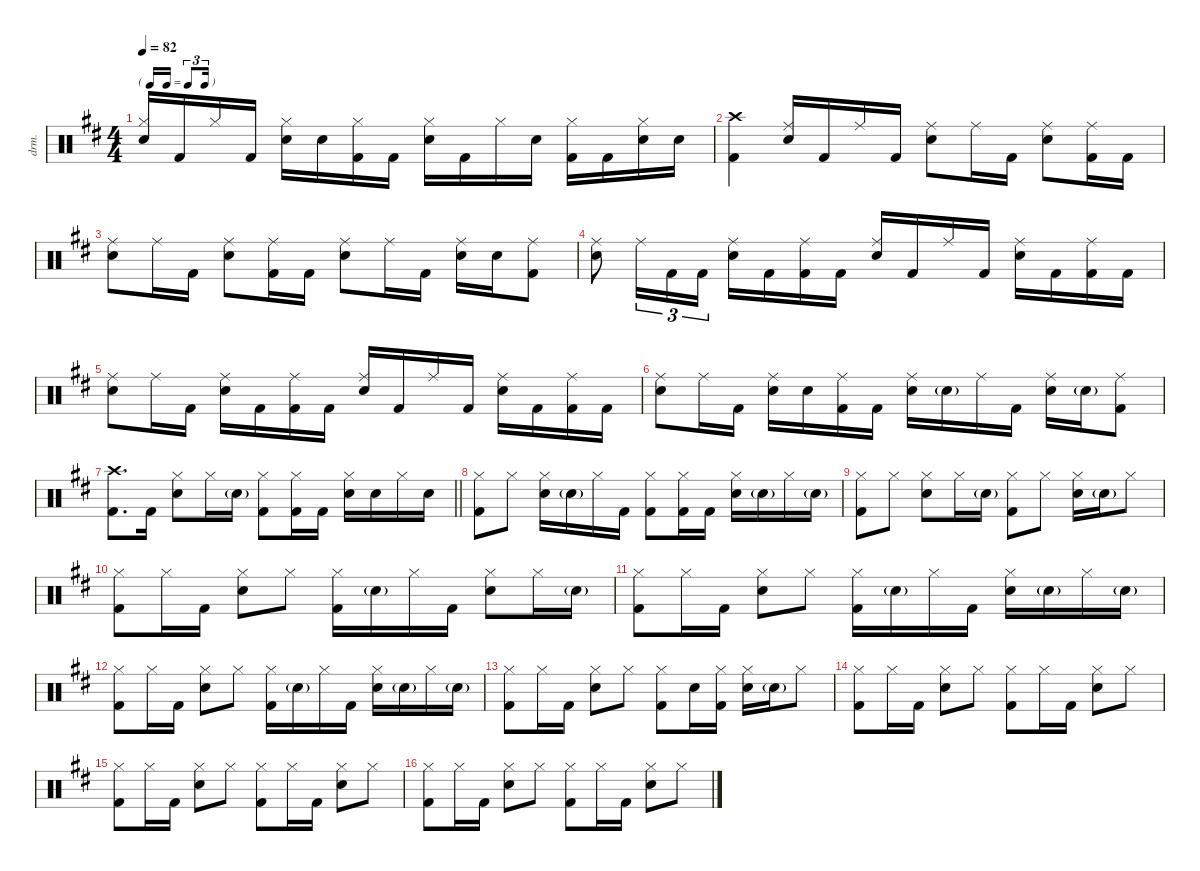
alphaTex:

\defaultSystemsLayout 4
\hideDynamics
\bracketExtendMode nobrackets
\otherSystemsTrackNameOrientation horizontal
\track ("Buddy" "drm.") {instrument percussion}
\staff {score}
\articulation defaults
\ts (4 4)
\tf triplet16th
\tempo 82
\clef neutral
\ks d
("Hi-Hat (closed)"{acc forcenatural} "Snare (hit) 2"{acc forcenatural}).16{dy f beam Up} "Kick (hit) 2"{acc forcenatural}.16{beam Up} "Hi-Hat (closed)"{acc forcenatural}.16{beam Up} "Kick (hit) 2"{acc forcenatural}.16{beam Up} ("Hi-Hat (closed)"{acc forcenatural} "Snare (hit) 2"{acc forcenatural}).16{beam Down} "Snare (hit) 2"{acc forcenatural}.16{beam Down} ("Hi-Hat (closed)"{acc forcenatural} "Kick (hit) 2"{acc forcenatural}).16{beam Down} "Kick (hit) 2"{acc forcenatural}.16{beam Down} ("Hi-Hat (closed)"{acc forcenatural} "Snare (hit) 2"{acc forcenatural}).16{beam Down} "Kick (hit) 2"{acc forcenatural}.16{beam Down} "Hi-Hat (closed)"{acc forcenatural}.16{beam Down} "Snare (hit) 2"{acc forcenatural}.16{beam Down} ("Hi-Hat (closed)"{acc forcenatural} "Kick (hit) 2"{acc forcenatural}).16{beam Down} "Kick (hit) 2"{acc forcenatural}.16{beam Down} ("Hi-Hat (closed)"{acc forcenatural} "Snare (hit) 2"{acc forcenatural}).16{beam Down} "Snare (hit) 2"{acc forcenatural}.16{beam Down} |
("Crash high (hit)"{acc forcenatural} "Kick (hit) 2"{acc forcenatural}).4{beam Down} ("Ride (middle)"{acc forcenatural} "Snare (hit) 2"{acc forcenatural}).16{beam Up} "Kick (hit) 2"{acc forcenatural}.16{beam Up} "Ride (middle)"{acc forcenatural}.16{beam Up} "Kick (hit) 2"{acc forcenatural}.16{beam Up} ("Ride (middle)"{acc forcenatural} "Snare (hit) 2"{acc forcenatural}).8{beam Down} "Ride (middle)"{acc forcenatural}.16{beam Down} "Kick (hit) 2"{acc forcenatural}.16{beam Down} ("Ride (middle)"{acc forcenatural} "Snare (hit) 2"{acc forcenatural}).8{beam Down} ("Ride (middle)"{acc forcenatural} "Kick (hit) 2"{acc forcenatural}).16{beam Down} "Kick (hit) 2"{acc forcenatural}.16{beam Down} |
("Ride (middle)"{acc forcenatural} "Snare (hit) 2"{acc forcenatural}).8{beam Down} "Ride (middle)"{acc forcenatural}.16{beam Down} "Kick (hit) 2"{acc forcenatural}.16{beam Down} ("Ride (middle)"{acc forcenatural} "Snare (hit) 2"{acc forcenatural}).8{beam Down} ("Ride (middle)"{acc forcenatural} "Kick (hit) 2"{acc forcenatural}).16{beam Down} "Kick (hit) 2"{acc forcenatural}.16{beam Down} ("Ride (middle)"{acc forcenatural} "Snare (hit) 2"{acc forcenatural}).8{beam Down} "Ride (middle)"{acc forcenatural}.16{beam Down} "Kick (hit) 2"{acc forcenatural}.16{beam Down} ("Ride (middle)"{acc forcenatural} "Snare (hit) 2"{acc forcenatural}).16{beam Down} "Snare (hit) 2"{acc forcenatural}.16{beam Down} ("Ride (middle)"{acc forcenatural} "Kick (hit) 2"{acc forcenatural}).8{beam Down} |
("Ride (middle)"{acc forcenatural} "Snare (hit) 2"{acc forcenatural}).8{beam Down} "Ride (middle)"{acc forcenatural}.16{tu (3 2) beam Down} "Kick (hit) 2"{acc forcenatural}.16{tu (3 2) beam Down} "Kick (hit) 2"{acc forcenatural}.16{tu (3 2) beam Down} ("Ride (middle)"{acc forcenatural} "Snare (hit) 2"{acc forcenatural}).16{beam Down} "Kick (hit) 2"{acc forcenatural}.16{beam Down} ("Ride (middle)"{acc forcenatural} "Kick (hit) 2"{acc forcenatural}).16{beam Down} "Kick (hit) 2"{acc forcenatural}.16{beam Down} ("Ride (middle)"{acc forcenatural} "Snare (hit) 2"{acc forcenatural}).16{beam Up} "Kick (hit) 2"{acc forcenatural}.16{beam Up} "Ride (middle)"{acc forcenatural}.16{beam Up} "Kick (hit) 2"{acc forcenatural}.16{beam Up} ("Ride (middle)"{acc forcenatural} "Snare (hit) 2"{acc forcenatural}).16{beam Down} "Kick (hit) 2"{acc forcenatural}.16{beam Down} ("Ride (middle)"{acc forcenatural} "Kick (hit) 2"{acc forcenatural}).16{beam Down} "Kick (hit) 2"{acc forcenatural}.16{beam Down} |
("Ride (middle)"{acc forcenatural} "Snare (hit) 2"{acc forcenatural}).8{beam Down} "Ride (middle)"{acc forcenatural}.16{beam Down} "Kick (hit) 2"{acc forcenatural}.16{beam Down} ("Ride (middle)"{acc forcenatural} "Snare (hit) 2"{acc forcenatural}).16{beam Down} "Kick (hit) 2"{acc forcenatural}.16{beam Down} ("Ride (middle)"{acc forcenatural} "Kick (hit) 2"{acc forcenatural}).16{beam Down} "Kick (hit) 2"{acc forcenatural}.16{beam Down} ("Ride (middle)"{acc forcenatural} "Snare (hit) 2"{acc forcenatural}).16{beam Up} "Kick (hit) 2"{acc forcenatural}.16{beam Up} "Ride (middle)"{acc forcenatural}.16{beam Up} "Kick (hit) 2"{acc forcenatural}.16{beam Up} ("Ride (middle)"{acc forcenatural} "Snare (hit) 2"{acc forcenatural}).16{beam Down} "Kick (hit) 2"{acc forcenatural}.16{beam Down} ("Ride (middle)"{acc forcenatural} "Kick (hit) 2"{acc forcenatural}).16{beam Down} "Kick (hit) 2"{acc forcenatural}.16{beam Down} |
("Ride (middle)"{acc forcenatural} "Snare (hit) 2"{acc forcenatural}).8{beam Down} "Ride (middle)"{acc forcenatural}.16{beam Down} "Kick (hit) 2"{acc forcenatural}.16{beam Down} ("Ride (middle)"{acc forcenatural} "Snare (hit) 2"{acc forcenatural}).16{beam Down} "Snare (hit) 2"{acc forcenatural}.16{beam Down} ("Ride (middle)"{acc forcenatural} "Kick (hit) 2"{acc forcenatural}).16{beam Down} "Kick (hit) 2"{acc forcenatural}.16{beam Down} ("Ride (middle)"{acc forcenatural} "Snare (hit) 2"{acc forcenatural}).16{beam Down} "Snare (hit) 2"{g acc forcenatural}.16{dy mf beam Down} "Ride (middle)"{acc forcenatural}.16{dy f beam Down} "Kick (hit) 2"{acc forcenatural}.16{beam Down} ("Ride (middle)"{acc forcenatural} "Snare (hit) 2"{acc forcenatural}).16{beam Down} "Snare (hit) 2"{g acc forcenatural}.16{dy mf beam Down} ("Ride (middle)"{acc forcenatural} "Kick (hit) 2"{acc forcenatural}).8{dy f beam Down} |
\barLineRight lightlight
("Crash high (hit)"{acc forcenatural} "Kick (hit) 2"{acc forcenatural}).8{d beam Down} "Kick (hit) 2"{acc forcenatural}.16{beam Down} ("Hi-Hat (closed)"{acc forcenatural} "Snare (hit) 2"{acc forcenatural}).8{beam Down} "Hi-Hat (closed)"{acc forcenatural}.16{beam Down} "Snare (hit) 2"{g acc forcenatural}.16{dy mf beam Down} ("Hi-Hat (closed)"{acc forcenatural} "Kick (hit) 2"{acc forcenatural}).8{dy f beam Down} ("Hi-Hat (closed)"{acc forcenatural} "Kick (hit) 2"{acc forcenatural}).16{beam Down} "Kick (hit) 2"{acc forcenatural}.16{beam Down} ("Hi-Hat (closed)"{acc forcenatural} "Snare (hit) 2"{acc forcenatural}).16{beam Down} "Snare (hit) 2"{acc forcenatural}.16{beam Down} "Hi-Hat (closed)"{acc forcenatural}.16{beam Down} "Snare (hit) 2"{acc forcenatural}.16{beam Down} |
("Hi-Hat (closed)"{acc forcenatural} "Kick (hit) 2"{acc forcenatural}).8{beam Down} "Hi-Hat (closed)"{acc forcenatural}.8{beam Down} ("Hi-Hat (closed)"{acc forcenatural} "Snare (hit) 2"{acc forcenatural}).16{beam Down} "Snare (hit) 2"{g acc forcenatural}.16{dy mf beam Down} "Hi-Hat (closed)"{acc forcenatural}.16{dy f beam Down} "Kick (hit) 2"{acc forcenatural}.16{beam Down} ("Hi-Hat (closed)"{acc forcenatural} "Kick (hit) 2"{acc forcenatural}).8{beam Down} ("Hi-Hat (closed)"{acc forcenatural} "Kick (hit) 2"{acc forcenatural}).16{beam Down} "Kick (hit) 2"{acc forcenatural}.16{beam Down} ("Hi-Hat (closed)"{acc forcenatural} "Snare (hit) 2"{acc forcenatural}).16{beam Down} "Snare (hit) 2"{g acc forcenatural}.16{dy mf beam Down} "Hi-Hat (closed)"{acc forcenatural}.16{dy f beam Down} "Snare (hit) 2"{g acc forcenatural}.16{dy mf beam Down} |
("Hi-Hat (closed)"{acc forcenatural} "Kick (hit) 2"{acc forcenatural}).8{dy f beam Down} "Hi-Hat (closed)"{acc forcenatural}.8{beam Down} ("Hi-Hat (closed)"{acc forcenatural} "Snare (hit) 2"{acc forcenatural}).8{beam Down} "Hi-Hat (closed)"{acc forcenatural}.16{beam Down} "Snare (hit) 2"{g acc forcenatural}.16{dy mf beam Down} ("Hi-Hat (closed)"{acc forcenatural} "Kick (hit) 2"{acc forcenatural}).8{dy f beam Down} "Hi-Hat (closed)"{acc forcenatural}.8{beam Down} ("Hi-Hat (closed)"{acc forcenatural} "Snare (hit) 2"{acc forcenatural}).16{beam Down} "Snare (hit) 2"{g acc forcenatural}.16{dy mf beam Down} "Hi-Hat (closed)"{acc forcenatural}.8{dy f beam Down} |
("Hi-Hat (closed)"{acc forcenatural} "Kick (hit) 2"{acc forcenatural}).8{beam Down} "Hi-Hat (closed)"{acc forcenatural}.16{beam Down} "Kick (hit) 2"{acc forcenatural}.16{beam Down} ("Hi-Hat (closed)"{acc forcenatural} "Snare (hit) 2"{acc forcenatural}).8{beam Down} "Hi-Hat (closed)"{acc forcenatural}.8{beam Down} ("Hi-Hat (closed)"{acc forcenatural} "Kick (hit) 2"{acc forcenatural}).16{beam Down} "Snare (hit) 2"{g acc forcenatural}.16{dy mf beam Down} "Hi-Hat (closed)"{acc forcenatural}.16{dy f beam Down} "Kick (hit) 2"{acc forcenatural}.16{beam Down} ("Hi-Hat (closed)"{acc forcenatural} "Snare (hit) 2"{acc forcenatural}).8{beam Down} "Hi-Hat (closed)"{acc forcenatural}.16{beam Down} "Snare (hit) 2"{g acc forcenatural}.16{dy mf beam Down} |
("Hi-Hat (closed)"{acc forcenatural} "Kick (hit) 2"{acc forcenatural}).8{dy f beam Down} "Hi-Hat (closed)"{acc forcenatural}.16{beam Down} "Kick (hit) 2"{acc forcenatural}.16{beam Down} ("Hi-Hat (closed)"{acc forcenatural} "Snare (hit) 2"{acc forcenatural}).8{beam Down} "Hi-Hat (closed)"{acc forcenatural}.8{beam Down} ("Hi-Hat (closed)"{acc forcenatural} "Kick (hit) 2"{acc forcenatural}).16{beam Down} "Snare (hit) 2"{g acc forcenatural}.16{dy mf beam Down} "Hi-Hat (closed)"{acc forcenatural}.16{dy f beam Down} "Kick (hit) 2"{acc forcenatural}.16{beam Down} ("Hi-Hat (closed)"{acc forcenatural} "Snare (hit) 2"{acc forcenatural}).16{beam Down} "Snare (hit) 2"{g acc forcenatural}.16{dy mf beam Down} "Hi-Hat (closed)"{acc forcenatural}.16{dy f beam Down} "Snare (hit) 2"{g acc forcenatural}.16{dy mf beam Down} |
("Hi-Hat (closed)"{acc forcenatural} "Kick (hit) 2"{acc forcenatural}).8{dy f beam Down} "Hi-Hat (closed)"{acc forcenatural}.16{beam Down} "Kick (hit) 2"{acc forcenatural}.16{beam Down} ("Hi-Hat (closed)"{acc forcenatural} "Snare (hit) 2"{acc forcenatural}).8{beam Down} "Hi-Hat (closed)"{acc forcenatural}.8{beam Down} ("Hi-Hat (closed)"{acc forcenatural} "Kick (hit) 2"{acc forcenatural}).16{beam Down} "Snare (hit) 2"{g acc forcenatural}.16{dy mf beam Down} "Hi-Hat (closed)"{acc forcenatural}.16{dy f beam Down} "Kick (hit) 2"{acc forcenatural}.16{beam Down} ("Hi-Hat (closed)"{acc forcenatural} "Snare (hit) 2"{acc forcenatural}).16{beam Down} "Snare (hit) 2"{g acc forcenatural}.16{dy mf beam Down} "Hi-Hat (closed)"{acc forcenatural}.16{dy f beam Down} "Snare (hit) 2"{g acc forcenatural}.16{dy mf beam Down} |
("Hi-Hat (closed)"{acc forcenatural} "Kick (hit) 2"{acc forcenatural}).8{dy f beam Down} "Hi-Hat (closed)"{acc forcenatural}.16{beam Down} "Kick (hit) 2"{acc forcenatural}.16{beam Down} ("Hi-Hat (closed)"{acc forcenatural} "Snare (hit) 2"{acc forcenatural}).8{beam Down} "Hi-Hat (closed)"{acc forcenatural}.8{beam Down} ("Hi-Hat (closed)"{acc forcenatural} "Kick (hit) 2"{acc forcenatural}).8{beam Down} "Snare (hit) 2"{acc forcenatural}.16{beam Down} ("Hi-Hat (closed)"{acc forcenatural} "Kick (hit) 2"{acc forcenatural}).16{beam Down} ("Hi-Hat (closed)"{acc forcenatural} "Snare (hit) 2"{acc forcenatural}).16{beam Down} "Snare (hit) 2"{g acc forcenatural}.16{dy mf beam Down} "Hi-Hat (closed)"{acc forcenatural}.8{dy f beam Down} |
("Hi-Hat (closed)"{acc forcenatural} "Kick (hit) 2"{acc forcenatural}).8{beam Down} "Hi-Hat (closed)"{acc forcenatural}.16{beam Down} "Kick (hit) 2"{acc forcenatural}.16{beam Down} ("Hi-Hat (closed)"{acc forcenatural} "Snare (hit) 2"{acc forcenatural}).8{beam Down} "Hi-Hat (closed)"{acc forcenatural}.8{beam Down} ("Hi-Hat (closed)"{acc forcenatural} "Kick (hit) 2"{acc forcenatural}).8{beam Down} "Hi-Hat (closed)"{acc forcenatural}.16{beam Down} "Kick (hit) 2"{acc forcenatural}.16{beam Down} ("Hi-Hat (closed)"{acc forcenatural} "Snare (hit) 2"{acc forcenatural}).8{beam Down} "Hi-Hat (closed)"{acc forcenatural}.8{beam Down} |
("Hi-Hat (closed)"{acc forcenatural} "Kick (hit) 2"{acc forcenatural}).8{beam Down} "Hi-Hat (closed)"{acc forcenatural}.16{beam Down} "Kick (hit) 2"{acc forcenatural}.16{beam Down} ("Hi-Hat (closed)"{acc forcenatural} "Snare (hit) 2"{acc forcenatural}).8{beam Down} "Hi-Hat (closed)"{acc forcenatural}.8{beam Down} ("Hi-Hat (closed)"{acc forcenatural} "Kick (hit) 2"{acc forcenatural}).8{beam Down} "Hi-Hat (closed)"{acc forcenatural}.16{beam Down} "Kick (hit) 2"{acc forcenatural}.16{beam Down} ("Hi-Hat (closed)"{acc forcenatural} "Snare (hit) 2"{acc forcenatural}).8{beam Down} "Hi-Hat (closed)"{acc forcenatural}.8{beam Down} |
("Hi-Hat (closed)"{acc forcenatural} "Kick (hit) 2"{acc forcenatural}).8{beam Down} "Hi-Hat (closed)"{acc forcenatural}.16{beam Down} "Kick (hit) 2"{acc forcenatural}.16{beam Down} ("Hi-Hat (closed)"{acc forcenatural} "Snare (hit) 2"{acc forcenatural}).8{beam Down} "Hi-Hat (closed)"{acc forcenatural}.8{beam Down} ("Hi-Hat (closed)"{acc forcenatural} "Kick (hit) 2"{acc forcenatural}).8{beam Down} "Hi-Hat (closed)"{acc forcenatural}.16{beam Down} "Kick (hit) 2"{acc forcenatural}.16{beam Down} ("Hi-Hat (closed)"{acc forcenatural} "Snare (hit) 2"{acc forcenatural}).8{beam Down} "Hi-Hat (closed)"{acc forcenatural}.8{beam Down}
